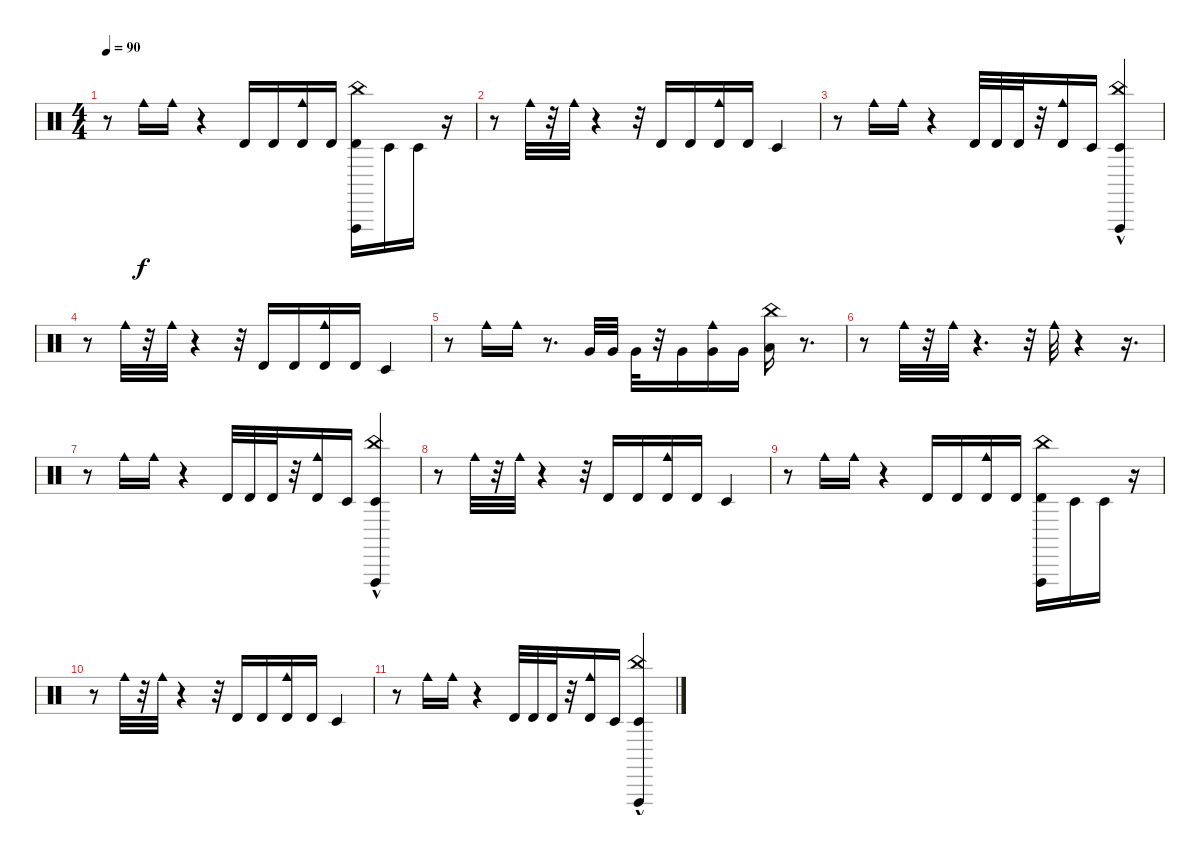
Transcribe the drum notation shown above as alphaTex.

\track "" {instrument percussion}
\staff {score}
\articulation defaults
\ts (4 4)
\tempo 90
\clef neutral
\ks c
r.8{dy f} "Cowbell medium (hit)".16 "Cowbell medium (hit)".16 r.4 "Timbale high (hit)".16 "Timbale high (hit)".16 ("Cowbell medium (hit)" "Timbale high (hit)").16 "Timbale high (hit)".16 ("Vibraslap (hit)" "China (hit)" "Timbale high (hit)").16 "Timbale low (hit)".16 "Timbale low (hit)".16 r.16 |
r.8 "Cowbell medium (hit)".32 r.32 "Cowbell medium (hit)".32 r.4 r.32 "Timbale high (hit)".16 "Timbale high (hit)".16 ("Cowbell medium (hit)" "Timbale high (hit)").16 "Timbale high (hit)".16 "Timbale low (hit)".4 |
r.8 "Cowbell medium (hit)".16 "Cowbell medium (hit)".16 r.4 "Timbale high (hit)".32 "Timbale high (hit)".32 "Timbale high (hit)".32 r.32 ("Timbale high (hit)" "Cowbell medium (hit)").16 "Timbale low (hit)".16 ("China (hit)" "Vibraslap (hit)"{hac} "Timbale low (hit)").4 |
r.8 "Cowbell medium (hit)".32 r.32 "Cowbell medium (hit)".32 r.4 r.32 "Timbale high (hit)".16 "Timbale high (hit)".16 ("Timbale high (hit)" "Cowbell medium (hit)").16 "Timbale high (hit)".16 "Timbale low (hit)".4 |
r.8 "Cowbell medium (hit)".16 "Cowbell medium (hit)".16 r.8{d} "Very Low Tom (hit)".32 "Very Low Tom (hit)".32 "Very Low Tom (hit)".32 r.32 "Very Low Tom (hit)".16 ("Very Low Tom (hit)" "Cowbell medium (hit)").16 "Very Low Tom (hit)".16 ("Low Floor Tom (hit)" "China (hit)").16 r.8{d} |
r.8 "Cowbell medium (hit)".32{volume 12} r.32 "Cowbell medium (hit)".32{volume 12} r.4{d} r.32 "Cowbell medium (hit)".32{volume 11} r.4 r.16{d} |
r.8 "Cowbell medium (hit)".16{volume 10} "Cowbell medium (hit)".16{volume 10} r.4 "Timbale high (hit)".32{volume 10} "Timbale high (hit)".32{volume 10} "Timbale high (hit)".32 r.32 ("Timbale high (hit)" "Cowbell medium (hit)").16{volume 9} "Timbale low (hit)".16{volume 9} ("Timbale low (hit)" "Vibraslap (hit)"{hac} "China (hit)").4{volume 9} |
r.8 "Cowbell medium (hit)".32{volume 8} r.32 "Cowbell medium (hit)".32{volume 8} r.4 r.32 "Timbale high (hit)".16{volume 8} "Timbale high (hit)".16{volume 8} ("Cowbell medium (hit)" "Timbale high (hit)").16{volume 7} "Timbale high (hit)".16{volume 7} "Timbale low (hit)".4{volume 7} |
r.8 "Cowbell medium (hit)".16{volume 6} "Cowbell medium (hit)".16{volume 6} r.4 "Timbale high (hit)".16{volume 6} "Timbale high (hit)".16{volume 6} ("Timbale high (hit)" "Cowbell medium (hit)").16{volume 5} "Timbale high (hit)".16{volume 5} ("Vibraslap (hit)" "Timbale high (hit)" "China (hit)").16{volume 5} "Timbale low (hit)".16{volume 5} "Timbale low (hit)".16{volume 5} r.16 |
r.8 "Cowbell medium (hit)".32{volume 4} r.32 "Cowbell medium (hit)".32{volume 4} r.4 r.32 "Timbale high (hit)".16{volume 4} "Timbale high (hit)".16{volume 4} ("Cowbell medium (hit)" "Timbale high (hit)").16{volume 4} "Timbale high (hit)".16{volume 3} "Timbale low (hit)".4{volume 3} |
r.8 "Cowbell medium (hit)".16{volume 3} "Cowbell medium (hit)".16{volume 2} r.4 "Timbale high (hit)".32{volume 0} "Timbale high (hit)".32{volume 0} "Timbale high (hit)".32{volume 0} r.32 ("Timbale high (hit)" "Cowbell medium (hit)").16{volume 0} "Timbale low (hit)".16{volume 0} ("Vibraslap (hit)"{hac} "China (hit)" "Timbale low (hit)").4
